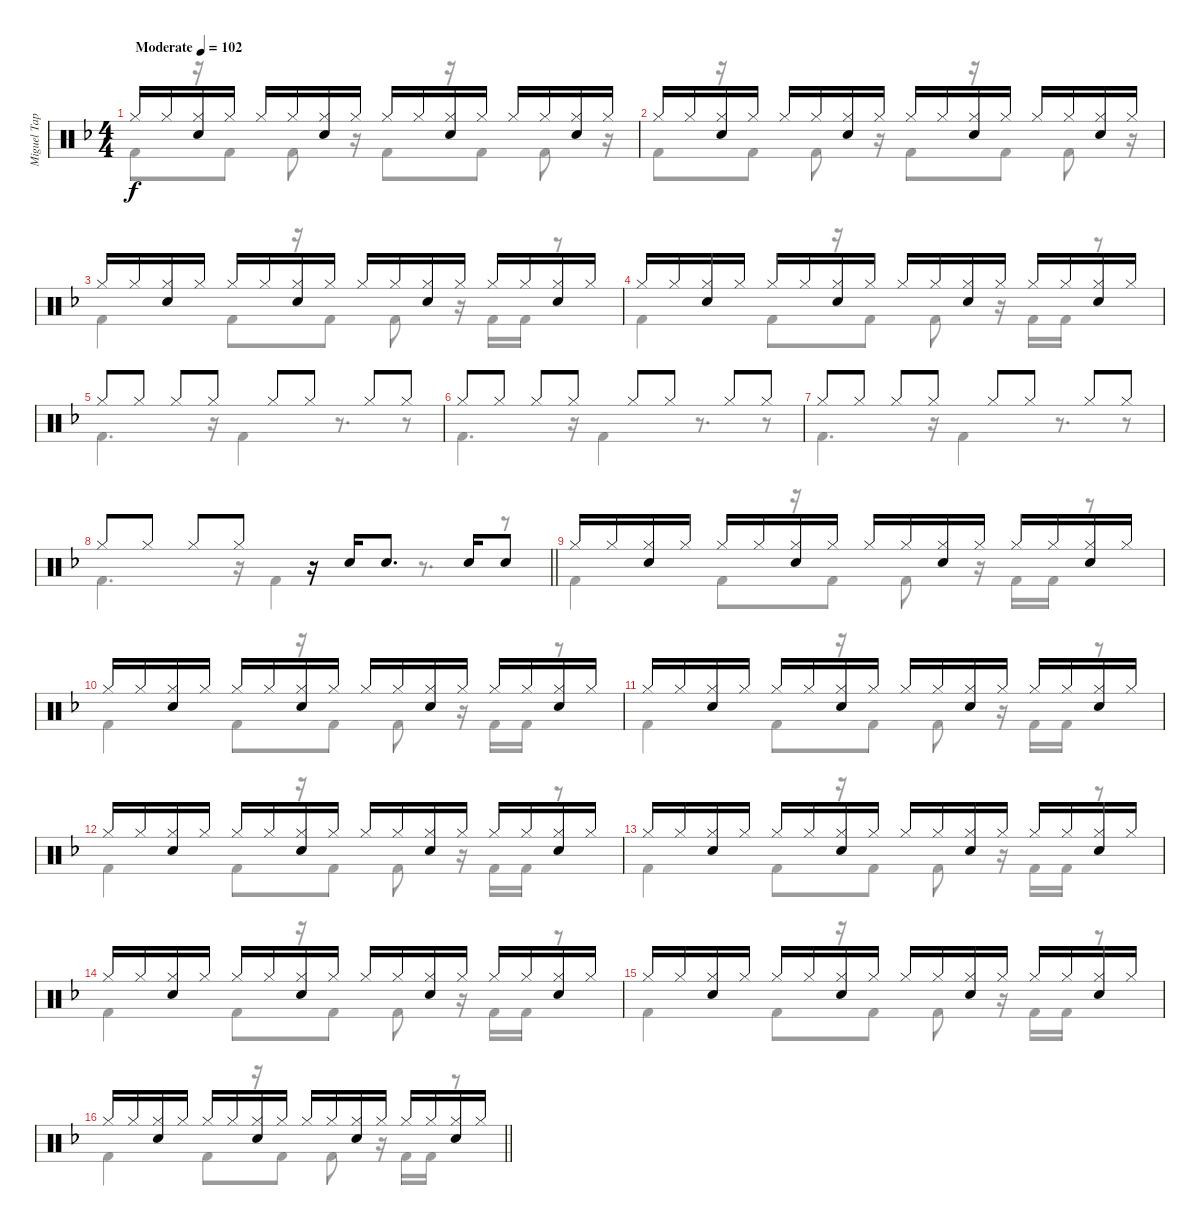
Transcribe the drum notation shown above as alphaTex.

\track ("Miguel Tapia (Batería)" "Miguel Tap") {instrument percussion}
\staff {score}
\articulation defaults
\voice
\ts (4 4)
\tempo (102 "Moderate")
\clef neutral
\ks f "Hi-Hat (closed)".16{dy f} "Hi-Hat (closed)".16
("Hi-Hat (closed)" "Snare (hit) 2").16 "Hi-Hat (closed)".16 "Hi-Hat (closed)".16 "Hi-Hat (closed)".16 ("Hi-Hat (closed)" "Snare (hit) 2").16 "Hi-Hat (closed)".16 "Hi-Hat (closed)".16 "Hi-Hat (closed)".16 ("Hi-Hat (closed)" "Snare (hit) 2").16 "Hi-Hat (closed)".16 "Hi-Hat (closed)".16 "Hi-Hat (closed)".16 ("Hi-Hat (closed)" "Snare (hit) 2").16 "Hi-Hat (closed)".16 |
"Hi-Hat (closed)".16 "Hi-Hat (closed)".16 ("Hi-Hat (closed)" "Snare (hit) 2").16 "Hi-Hat (closed)".16 "Hi-Hat (closed)".16 "Hi-Hat (closed)".16 ("Hi-Hat (closed)" "Snare (hit) 2").16 "Hi-Hat (closed)".16 "Hi-Hat (closed)".16 "Hi-Hat (closed)".16 ("Hi-Hat (closed)" "Snare (hit) 2").16 "Hi-Hat (closed)".16 "Hi-Hat (closed)".16 "Hi-Hat (closed)".16 ("Hi-Hat (closed)" "Snare (hit) 2").16 "Hi-Hat (closed)".16 |
"Hi-Hat (closed)".16 "Hi-Hat (closed)".16 ("Hi-Hat (closed)" "Snare (hit) 2").16 "Hi-Hat (closed)".16 "Hi-Hat (closed)".16 "Hi-Hat (closed)".16 ("Hi-Hat (closed)" "Snare (hit) 2").16 "Hi-Hat (closed)".16 "Hi-Hat (closed)".16 "Hi-Hat (closed)".16 ("Hi-Hat (closed)" "Snare (hit) 2").16 "Hi-Hat (closed)".16 "Hi-Hat (closed)".16 "Hi-Hat (closed)".16 ("Hi-Hat (closed)" "Snare (hit) 2").16 "Hi-Hat (closed)".16 |
"Hi-Hat (closed)".16 "Hi-Hat (closed)".16 ("Hi-Hat (closed)" "Snare (hit) 2").16 "Hi-Hat (closed)".16 "Hi-Hat (closed)".16 "Hi-Hat (closed)".16 ("Hi-Hat (closed)" "Snare (hit) 2").16 "Hi-Hat (closed)".16 "Hi-Hat (closed)".16 "Hi-Hat (closed)".16 ("Hi-Hat (closed)" "Snare (hit) 2").16 "Hi-Hat (closed)".16 "Hi-Hat (closed)".16 "Hi-Hat (closed)".16 ("Hi-Hat (closed)" "Snare (hit) 2").16 "Hi-Hat (closed)".16 |
"Hi-Hat (closed)".8 "Hi-Hat (closed)".8 "Hi-Hat (closed)".8 "Hi-Hat (closed)".8 "Hi-Hat (closed)".8 "Hi-Hat (closed)".8 "Hi-Hat (closed)".8 "Hi-Hat (closed)".8 |
"Hi-Hat (closed)".8 "Hi-Hat (closed)".8 "Hi-Hat (closed)".8 "Hi-Hat (closed)".8 "Hi-Hat (closed)".8 "Hi-Hat (closed)".8 "Hi-Hat (closed)".8 "Hi-Hat (closed)".8 |
"Hi-Hat (closed)".8 "Hi-Hat (closed)".8 "Hi-Hat (closed)".8 "Hi-Hat (closed)".8 "Hi-Hat (closed)".8 "Hi-Hat (closed)".8 "Hi-Hat (closed)".8 "Hi-Hat (closed)".8 |
\barLineRight lightlight "Hi-Hat (closed)".8 "Hi-Hat (closed)".8 "Hi-Hat (closed)".8 "Hi-Hat (closed)".8
r.16 "Snare (hit) 2".16 "Snare (hit) 2".8{d} "Snare (hit) 2".16 "Snare (hit) 2".8 |
"Hi-Hat (closed)".16 "Hi-Hat (closed)".16 ("Hi-Hat (closed)" "Snare (hit) 2").16 "Hi-Hat (closed)".16 "Hi-Hat (closed)".16 "Hi-Hat (closed)".16 ("Hi-Hat (closed)" "Snare (hit) 2").16 "Hi-Hat (closed)".16 "Hi-Hat (closed)".16 "Hi-Hat (closed)".16 ("Hi-Hat (closed)" "Snare (hit) 2").16 "Hi-Hat (closed)".16 "Hi-Hat (closed)".16 "Hi-Hat (closed)".16 ("Hi-Hat (closed)" "Snare (hit) 2").16 "Hi-Hat (closed)".16 |
"Hi-Hat (closed)".16 "Hi-Hat (closed)".16 ("Hi-Hat (closed)" "Snare (hit) 2").16 "Hi-Hat (closed)".16 "Hi-Hat (closed)".16 "Hi-Hat (closed)".16 ("Hi-Hat (closed)" "Snare (hit) 2").16 "Hi-Hat (closed)".16 "Hi-Hat (closed)".16 "Hi-Hat (closed)".16 ("Hi-Hat (closed)" "Snare (hit) 2").16 "Hi-Hat (closed)".16 "Hi-Hat (closed)".16 "Hi-Hat (closed)".16 ("Hi-Hat (closed)" "Snare (hit) 2").16 "Hi-Hat (closed)".16 |
"Hi-Hat (closed)".16 "Hi-Hat (closed)".16 ("Hi-Hat (closed)" "Snare (hit) 2").16 "Hi-Hat (closed)".16 "Hi-Hat (closed)".16 "Hi-Hat (closed)".16 ("Hi-Hat (closed)" "Snare (hit) 2").16 "Hi-Hat (closed)".16 "Hi-Hat (closed)".16 "Hi-Hat (closed)".16 ("Hi-Hat (closed)" "Snare (hit) 2").16 "Hi-Hat (closed)".16 "Hi-Hat (closed)".16 "Hi-Hat (closed)".16 ("Hi-Hat (closed)" "Snare (hit) 2").16 "Hi-Hat (closed)".16 |
"Hi-Hat (closed)".16 "Hi-Hat (closed)".16 ("Hi-Hat (closed)" "Snare (hit) 2").16 "Hi-Hat (closed)".16 "Hi-Hat (closed)".16 "Hi-Hat (closed)".16 ("Hi-Hat (closed)" "Snare (hit) 2").16 "Hi-Hat (closed)".16 "Hi-Hat (closed)".16 "Hi-Hat (closed)".16 ("Hi-Hat (closed)" "Snare (hit) 2").16 "Hi-Hat (closed)".16 "Hi-Hat (closed)".16 "Hi-Hat (closed)".16 ("Hi-Hat (closed)" "Snare (hit) 2").16 "Hi-Hat (closed)".16 |
"Hi-Hat (closed)".16 "Hi-Hat (closed)".16 ("Hi-Hat (closed)" "Snare (hit) 2").16 "Hi-Hat (closed)".16 "Hi-Hat (closed)".16 "Hi-Hat (closed)".16 ("Hi-Hat (closed)" "Snare (hit) 2").16 "Hi-Hat (closed)".16 "Hi-Hat (closed)".16 "Hi-Hat (closed)".16 ("Hi-Hat (closed)" "Snare (hit) 2").16 "Hi-Hat (closed)".16 "Hi-Hat (closed)".16 "Hi-Hat (closed)".16 ("Hi-Hat (closed)" "Snare (hit) 2").16 "Hi-Hat (closed)".16 |
"Hi-Hat (closed)".16 "Hi-Hat (closed)".16 ("Hi-Hat (closed)" "Snare (hit) 2").16 "Hi-Hat (closed)".16 "Hi-Hat (closed)".16 "Hi-Hat (closed)".16 ("Hi-Hat (closed)" "Snare (hit) 2").16 "Hi-Hat (closed)".16 "Hi-Hat (closed)".16 "Hi-Hat (closed)".16 ("Hi-Hat (closed)" "Snare (hit) 2").16 "Hi-Hat (closed)".16 "Hi-Hat (closed)".16 "Hi-Hat (closed)".16 ("Hi-Hat (closed)" "Snare (hit) 2").16 "Hi-Hat (closed)".16 |
"Hi-Hat (closed)".16 "Hi-Hat (closed)".16 ("Hi-Hat (closed)" "Snare (hit) 2").16 "Hi-Hat (closed)".16 "Hi-Hat (closed)".16 "Hi-Hat (closed)".16 ("Hi-Hat (closed)" "Snare (hit) 2").16 "Hi-Hat (closed)".16 "Hi-Hat (closed)".16 "Hi-Hat (closed)".16 ("Hi-Hat (closed)" "Snare (hit) 2").16 "Hi-Hat (closed)".16 "Hi-Hat (closed)".16 "Hi-Hat (closed)".16 ("Hi-Hat (closed)" "Snare (hit) 2").16 "Hi-Hat (closed)".16 |
\barLineRight lightlight "Hi-Hat (closed)".16 "Hi-Hat (closed)".16
("Hi-Hat (closed)" "Snare (hit) 2").16 "Hi-Hat (closed)".16 "Hi-Hat (closed)".16 "Hi-Hat (closed)".16 ("Hi-Hat (closed)" "Snare (hit) 2").16 "Hi-Hat (closed)".16 "Hi-Hat (closed)".16 "Hi-Hat (closed)".16 ("Hi-Hat (closed)" "Snare (hit) 2").16 "Hi-Hat (closed)".16 "Hi-Hat (closed)".16 "Hi-Hat (closed)".16 ("Hi-Hat (closed)" "Snare (hit) 2").16 "Hi-Hat (closed)".16
\voice
\clef neutral
\ottava regular
\simile none
\ks f "Kick (hit) 2".8{dy f}
r.16 "Kick (hit) 2".8 "Kick (hit) 2".8 r.16 "Kick (hit) 2".8 r.16 "Kick (hit) 2".8 "Kick (hit) 2".8 r.16 |
"Kick (hit) 2".8 r.16 "Kick (hit) 2".8 "Kick (hit) 2".8 r.16 "Kick (hit) 2".8 r.16 "Kick (hit) 2".8 "Kick (hit) 2".8 r.16 |
"Kick (hit) 2".4 "Kick (hit) 2".8 r.16 "Kick (hit) 2".8 "Kick (hit) 2".8 r.16 "Kick (hit) 2".16 "Kick (hit) 2".16 r.8 |
"Kick (hit) 2".4 "Kick (hit) 2".8 r.16 "Kick (hit) 2".8 "Kick (hit) 2".8 r.16 "Kick (hit) 2".16 "Kick (hit) 2".16 r.8 |
"Kick (hit) 2".4{d} r.16 "Kick (hit) 2".4 r.8{d} r.8 |
"Kick (hit) 2".4{d} r.16 "Kick (hit) 2".4 r.8{d} r.8 |
"Kick (hit) 2".4{d} r.16 "Kick (hit) 2".4 r.8{d} r.8 |
\barLineRight lightlight "Kick (hit) 2".4{d}
r.16 "Kick (hit) 2".4 r.8{d} r.8 |
"Kick (hit) 2".4 "Kick (hit) 2".8 r.16 "Kick (hit) 2".8 "Kick (hit) 2".8 r.16 "Kick (hit) 2".16 "Kick (hit) 2".16 r.8 |
"Kick (hit) 2".4 "Kick (hit) 2".8 r.16 "Kick (hit) 2".8 "Kick (hit) 2".8 r.16 "Kick (hit) 2".16 "Kick (hit) 2".16 r.8 |
"Kick (hit) 2".4 "Kick (hit) 2".8 r.16 "Kick (hit) 2".8 "Kick (hit) 2".8 r.16 "Kick (hit) 2".16 "Kick (hit) 2".16 r.8 |
"Kick (hit) 2".4 "Kick (hit) 2".8 r.16 "Kick (hit) 2".8 "Kick (hit) 2".8 r.16 "Kick (hit) 2".16 "Kick (hit) 2".16 r.8 |
"Kick (hit) 2".4 "Kick (hit) 2".8 r.16 "Kick (hit) 2".8 "Kick (hit) 2".8 r.16 "Kick (hit) 2".16 "Kick (hit) 2".16 r.8 |
"Kick (hit) 2".4 "Kick (hit) 2".8 r.16 "Kick (hit) 2".8 "Kick (hit) 2".8 r.16 "Kick (hit) 2".16 "Kick (hit) 2".16 r.8 |
"Kick (hit) 2".4 "Kick (hit) 2".8 r.16 "Kick (hit) 2".8 "Kick (hit) 2".8 r.16 "Kick (hit) 2".16 "Kick (hit) 2".16 r.8 |
\barLineRight lightlight "Kick (hit) 2".4 "Kick (hit) 2".8
r.16 "Kick (hit) 2".8 "Kick (hit) 2".8 r.16 "Kick (hit) 2".16 "Kick (hit) 2".16 r.8
